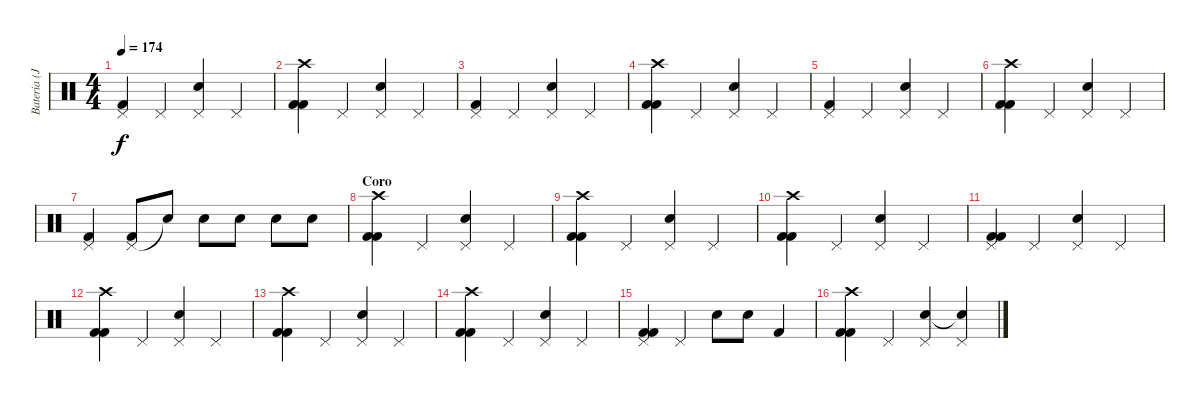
\track ("Bateria (Jefrey Fischman)" "Bateria (J") {instrument percussion}
\staff {score}
\articulation defaults
\ts (4 4)
\tempo 174
\clef neutral
\ks c
("Pedal Hi-Hat (hit)" "Kick (hit) 2").4{dy f} "Pedal Hi-Hat (hit)".4 ("Pedal Hi-Hat (hit)" "Snare (hit) 2").4 "Pedal Hi-Hat (hit)".4 |
("Crash high (hit)" "Kick (hit) 2" "Kick (hit) 2").4 "Pedal Hi-Hat (hit)".4 ("Pedal Hi-Hat (hit)" "Snare (hit) 2").4 "Pedal Hi-Hat (hit)".4 |
("Pedal Hi-Hat (hit)" "Kick (hit) 2").4 "Pedal Hi-Hat (hit)".4 ("Pedal Hi-Hat (hit)" "Snare (hit) 2").4 "Pedal Hi-Hat (hit)".4 |
("Crash high (hit)" "Kick (hit) 2" "Kick (hit) 2").4 "Pedal Hi-Hat (hit)".4 ("Pedal Hi-Hat (hit)" "Snare (hit) 2").4 "Pedal Hi-Hat (hit)".4 |
("Pedal Hi-Hat (hit)" "Kick (hit) 2").4 "Pedal Hi-Hat (hit)".4 ("Pedal Hi-Hat (hit)" "Snare (hit) 2").4 "Pedal Hi-Hat (hit)".4 |
("Crash high (hit)" "Kick (hit) 2" "Kick (hit) 2").4 "Pedal Hi-Hat (hit)".4 ("Pedal Hi-Hat (hit)" "Snare (hit) 2").4 "Pedal Hi-Hat (hit)".4 |
("Pedal Hi-Hat (hit)" "Kick (hit) 2").4 ("Pedal Hi-Hat (hit)" "Kick (hit) 2").8 "Snare (hit)"{t}.8 "Snare (hit) 2".8 "Snare (hit) 2".8 "Snare (hit) 2".8 "Snare (hit) 2".8 |
\section ("" "Coro")
("Crash high (hit)" "Kick (hit) 2" "Kick (hit) 2").4 "Pedal Hi-Hat (hit)".4 ("Pedal Hi-Hat (hit)" "Snare (hit) 2").4 "Pedal Hi-Hat (hit)".4 |
("Crash high (hit)" "Kick (hit) 2" "Kick (hit) 2").4 "Pedal Hi-Hat (hit)".4 ("Pedal Hi-Hat (hit)" "Snare (hit) 2").4 "Pedal Hi-Hat (hit)".4 |
("Crash high (hit)" "Kick (hit) 2" "Kick (hit) 2").4 "Pedal Hi-Hat (hit)".4 ("Pedal Hi-Hat (hit)" "Snare (hit) 2").4 "Pedal Hi-Hat (hit)".4 |
("Pedal Hi-Hat (hit)" "Kick (hit) 2" "Kick (hit) 2").4 "Pedal Hi-Hat (hit)".4 ("Pedal Hi-Hat (hit)" "Snare (hit) 2").4 "Pedal Hi-Hat (hit)".4 |
("Crash high (hit)" "Kick (hit) 2" "Kick (hit) 2").4 "Pedal Hi-Hat (hit)".4 ("Pedal Hi-Hat (hit)" "Snare (hit) 2").4 "Pedal Hi-Hat (hit)".4 |
("Crash high (hit)" "Kick (hit) 2" "Kick (hit) 2").4 "Pedal Hi-Hat (hit)".4 ("Pedal Hi-Hat (hit)" "Snare (hit) 2").4 "Pedal Hi-Hat (hit)".4 |
("Crash high (hit)" "Kick (hit) 2" "Kick (hit) 2").4 "Pedal Hi-Hat (hit)".4 ("Pedal Hi-Hat (hit)" "Snare (hit) 2").4 "Pedal Hi-Hat (hit)".4 |
("Pedal Hi-Hat (hit)" "Kick (hit) 2" "Kick (hit) 2").4 "Pedal Hi-Hat (hit)".4 "Snare (hit) 2".8 "Snare (hit) 2".8 "Kick (hit) 2".4 |
("Kick (hit) 2" "Kick (hit) 2" "Crash high (hit)").4 "Pedal Hi-Hat (hit)".4 ("Pedal Hi-Hat (hit)" "Snare (hit) 2").4 ("Pedal Hi-Hat (hit)" "Snare (hit)"{t}).4
